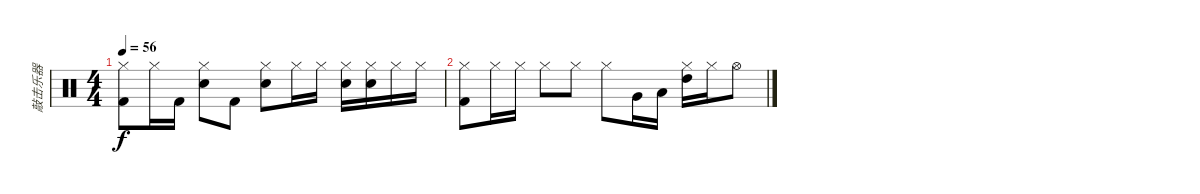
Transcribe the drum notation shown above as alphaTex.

\track ("敲击乐器" "敲击乐器") {instrument percussion}
\staff {score}
\articulation defaults
\ts (4 4)
\tempo 56
\clef neutral
\ks c
("Hi-Hat (closed)" "Kick (hit) 2").8{dy f} "Hi-Hat (closed)".16 "Kick (hit) 2".16 ("Hi-Hat (closed)" "Electric Snare (hit)").8 "Kick (hit) 2".8 ("Hi-Hat (closed)" "Electric Snare (hit)").8 "Hi-Hat (closed)".16 "Hi-Hat (closed)".16 ("Hi-Hat (closed)" "Electric Snare (hit)").16 ("Hi-Hat (closed)" "Electric Snare (hit)").16 "Hi-Hat (closed)".16 "Hi-Hat (closed)".16 |
("Hi-Hat (closed)" "Kick (hit) 2").8 "Hi-Hat (closed)".16 "Hi-Hat (closed)".16 "Hi-Hat (closed)".8 "Hi-Hat (closed)".8 "Hi-Hat (closed)".8 "Very Low Tom (hit)".16 "Low Tom (hit)".16 ("Hi-Hat (closed)" "High Tom (hit)").16 "Hi-Hat (closed)".16 "Hi-Hat (open)".8
